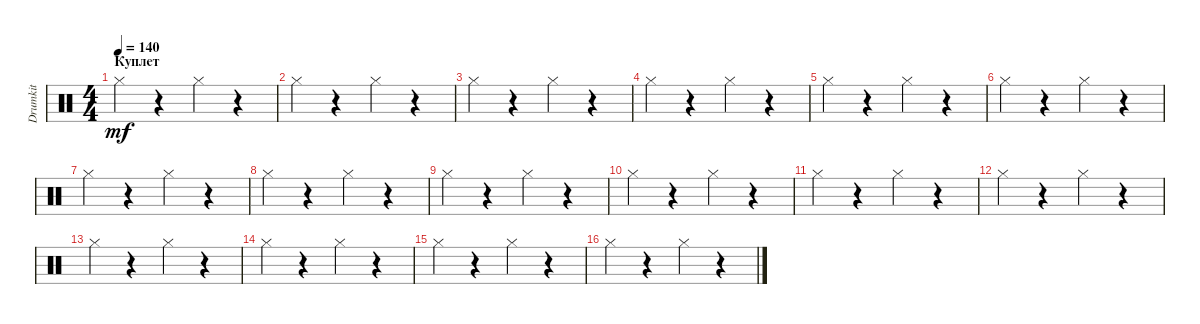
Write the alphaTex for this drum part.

\track ("Drumkit" "Drumkit") {instrument percussion}
\staff {score}
\articulation defaults
\ts (4 4)
\section ("" "Куплет")
\tempo 140
\clef neutral
\ks c "Hi-Hat (closed)".4{dy mf}
r.4 "Hi-Hat (closed)".4 r.4 |
"Hi-Hat (closed)".4 r.4 "Hi-Hat (closed)".4 r.4 |
"Hi-Hat (closed)".4 r.4 "Hi-Hat (closed)".4 r.4 |
"Hi-Hat (closed)".4 r.4 "Hi-Hat (closed)".4 r.4 |
"Hi-Hat (closed)".4 r.4 "Hi-Hat (closed)".4 r.4 |
"Hi-Hat (closed)".4 r.4 "Hi-Hat (closed)".4 r.4 |
"Hi-Hat (closed)".4 r.4 "Hi-Hat (closed)".4 r.4 |
"Hi-Hat (closed)".4 r.4 "Hi-Hat (closed)".4 r.4 |
"Hi-Hat (closed)".4 r.4 "Hi-Hat (closed)".4 r.4 |
"Hi-Hat (closed)".4 r.4 "Hi-Hat (closed)".4 r.4 |
"Hi-Hat (closed)".4 r.4 "Hi-Hat (closed)".4 r.4 |
"Hi-Hat (closed)".4 r.4 "Hi-Hat (closed)".4 r.4 |
"Hi-Hat (closed)".4 r.4 "Hi-Hat (closed)".4 r.4 |
"Hi-Hat (closed)".4 r.4 "Hi-Hat (closed)".4 r.4 |
"Hi-Hat (closed)".4 r.4 "Hi-Hat (closed)".4 r.4 |
"Hi-Hat (closed)".4 r.4 "Hi-Hat (closed)".4 r.4
